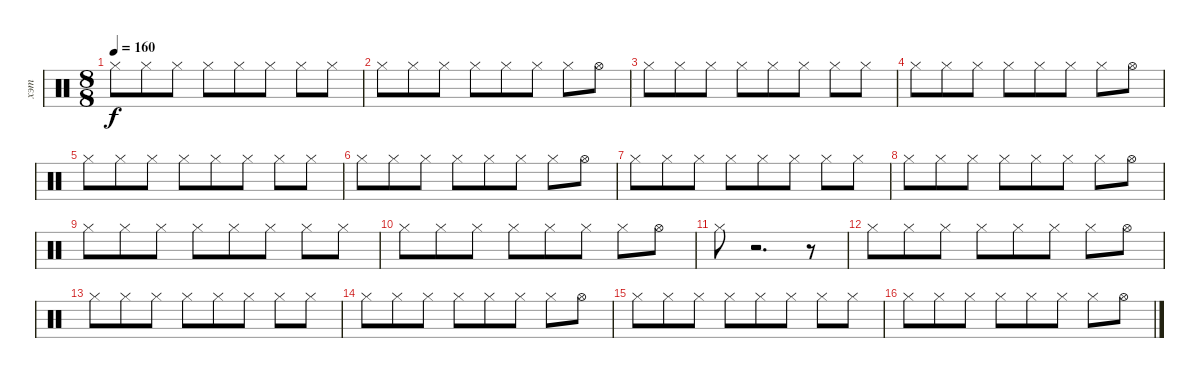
\track ("хэт" "хэт") {instrument percussion}
\staff {score}
\articulation defaults
\ts (8 8)
\tempo 160
\clef neutral
\ks c "Hi-Hat (closed)".8{dy f} "Hi-Hat (closed)".8 "Hi-Hat (closed)".8 "Hi-Hat (closed)".8 "Hi-Hat (closed)".8 "Hi-Hat (closed)".8 "Hi-Hat (closed)".8 "Hi-Hat (closed)".8
|
"Hi-Hat (closed)".8 "Hi-Hat (closed)".8 "Hi-Hat (closed)".8 "Hi-Hat (closed)".8 "Hi-Hat (closed)".8 "Hi-Hat (closed)".8 "Hi-Hat (closed)".8 "Hi-Hat (open)".8 |
"Hi-Hat (closed)".8 "Hi-Hat (closed)".8 "Hi-Hat (closed)".8 "Hi-Hat (closed)".8 "Hi-Hat (closed)".8 "Hi-Hat (closed)".8 "Hi-Hat (closed)".8 "Hi-Hat (closed)".8 |
"Hi-Hat (closed)".8 "Hi-Hat (closed)".8 "Hi-Hat (closed)".8 "Hi-Hat (closed)".8 "Hi-Hat (closed)".8 "Hi-Hat (closed)".8 "Hi-Hat (closed)".8 "Hi-Hat (open)".8 |
"Hi-Hat (closed)".8 "Hi-Hat (closed)".8 "Hi-Hat (closed)".8 "Hi-Hat (closed)".8 "Hi-Hat (closed)".8 "Hi-Hat (closed)".8 "Hi-Hat (closed)".8 "Hi-Hat (closed)".8 |
"Hi-Hat (closed)".8 "Hi-Hat (closed)".8 "Hi-Hat (closed)".8 "Hi-Hat (closed)".8 "Hi-Hat (closed)".8 "Hi-Hat (closed)".8 "Hi-Hat (closed)".8 "Hi-Hat (open)".8 |
"Hi-Hat (closed)".8 "Hi-Hat (closed)".8 "Hi-Hat (closed)".8 "Hi-Hat (closed)".8 "Hi-Hat (closed)".8 "Hi-Hat (closed)".8 "Hi-Hat (closed)".8 "Hi-Hat (closed)".8 |
"Hi-Hat (closed)".8 "Hi-Hat (closed)".8 "Hi-Hat (closed)".8 "Hi-Hat (closed)".8 "Hi-Hat (closed)".8 "Hi-Hat (closed)".8 "Hi-Hat (closed)".8 "Hi-Hat (open)".8 |
"Hi-Hat (closed)".8 "Hi-Hat (closed)".8 "Hi-Hat (closed)".8 "Hi-Hat (closed)".8 "Hi-Hat (closed)".8 "Hi-Hat (closed)".8 "Hi-Hat (closed)".8 "Hi-Hat (closed)".8 |
"Hi-Hat (closed)".8 "Hi-Hat (closed)".8 "Hi-Hat (closed)".8 "Hi-Hat (closed)".8 "Hi-Hat (closed)".8 "Hi-Hat (closed)".8 "Hi-Hat (closed)".8 "Hi-Hat (open)".8 |
"Hi-Hat (closed)".8 r.2{d} r.8 |
"Hi-Hat (closed)".8 "Hi-Hat (closed)".8 "Hi-Hat (closed)".8 "Hi-Hat (closed)".8 "Hi-Hat (closed)".8 "Hi-Hat (closed)".8 "Hi-Hat (closed)".8 "Hi-Hat (open)".8 |
"Hi-Hat (closed)".8 "Hi-Hat (closed)".8 "Hi-Hat (closed)".8 "Hi-Hat (closed)".8 "Hi-Hat (closed)".8 "Hi-Hat (closed)".8 "Hi-Hat (closed)".8 "Hi-Hat (closed)".8 |
"Hi-Hat (closed)".8 "Hi-Hat (closed)".8 "Hi-Hat (closed)".8 "Hi-Hat (closed)".8 "Hi-Hat (closed)".8 "Hi-Hat (closed)".8 "Hi-Hat (closed)".8 "Hi-Hat (open)".8 |
"Hi-Hat (closed)".8 "Hi-Hat (closed)".8 "Hi-Hat (closed)".8 "Hi-Hat (closed)".8 "Hi-Hat (closed)".8 "Hi-Hat (closed)".8 "Hi-Hat (closed)".8 "Hi-Hat (closed)".8 |
"Hi-Hat (closed)".8 "Hi-Hat (closed)".8 "Hi-Hat (closed)".8 "Hi-Hat (closed)".8 "Hi-Hat (closed)".8 "Hi-Hat (closed)".8 "Hi-Hat (closed)".8 "Hi-Hat (open)".8
